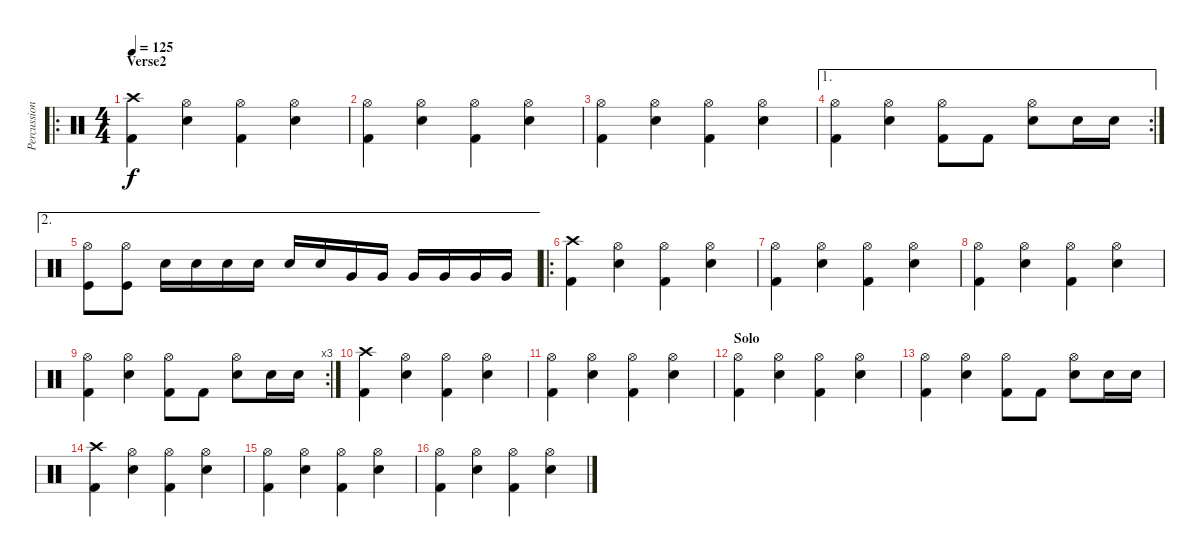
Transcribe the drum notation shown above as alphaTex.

\track ("Percussion" "Percussion") {instrument percussion}
\staff {score}
\articulation defaults
\ro
\ts (4 4)
\section ("" "Verse2")
\tempo 125
\clef neutral
\ks c
("Kick (hit) 2" "Crash high (hit)").4{dy f} ("Hi-Hat (open)" "Snare (hit) 2").4 ("Kick (hit) 2" "Hi-Hat (open)").4 ("Hi-Hat (open)" "Snare (hit) 2").4 |
("Kick (hit) 2" "Hi-Hat (open)").4 ("Hi-Hat (open)" "Snare (hit) 2").4 ("Kick (hit) 2" "Hi-Hat (open)").4 ("Hi-Hat (open)" "Snare (hit) 2").4 |
("Kick (hit) 2" "Hi-Hat (open)").4 ("Hi-Hat (open)" "Snare (hit) 2").4 ("Kick (hit) 2" "Hi-Hat (open)").4 ("Hi-Hat (open)" "Snare (hit) 2").4 |
\ae 1
\rc 2
("Kick (hit) 2" "Hi-Hat (open)").4 ("Hi-Hat (open)" "Snare (hit) 2").4 ("Kick (hit) 2" "Hi-Hat (open)").8 "Kick (hit) 2".8 ("Hi-Hat (open)" "Snare (hit) 2").8 "Snare (hit) 2".16 "Snare (hit) 2".16 |
\ae 2
("Hi-Hat (open)" "Kick (hit)").8 ("Hi-Hat (open)" "Kick (hit)").8 "Snare (hit) 2".16 "Snare (hit) 2".16 "Snare (hit) 2".16 "Snare (hit) 2".16 "Snare (hit) 2".16 "Snare (hit) 2".16 "Very Low Tom (hit)".16 "Very Low Tom (hit)".16 "Very Low Tom (hit)".16 "Very Low Tom (hit)".16 "Very Low Tom (hit)".16 "Very Low Tom (hit)".16 |
\ro
("Kick (hit) 2" "Crash high (hit)").4 ("Hi-Hat (open)" "Snare (hit) 2").4 ("Kick (hit) 2" "Hi-Hat (open)").4 ("Hi-Hat (open)" "Snare (hit) 2").4 |
("Kick (hit) 2" "Hi-Hat (open)").4 ("Hi-Hat (open)" "Snare (hit) 2").4 ("Kick (hit) 2" "Hi-Hat (open)").4 ("Hi-Hat (open)" "Snare (hit) 2").4 |
("Kick (hit) 2" "Hi-Hat (open)").4 ("Hi-Hat (open)" "Snare (hit) 2").4 ("Kick (hit) 2" "Hi-Hat (open)").4 ("Hi-Hat (open)" "Snare (hit) 2").4 |
\rc 3
("Kick (hit) 2" "Hi-Hat (open)").4 ("Hi-Hat (open)" "Snare (hit) 2").4 ("Kick (hit) 2" "Hi-Hat (open)").8 "Kick (hit) 2".8 ("Hi-Hat (open)" "Snare (hit) 2").8 "Snare (hit) 2".16 "Snare (hit) 2".16 |
("Kick (hit) 2" "Crash high (hit)").4 ("Hi-Hat (open)" "Snare (hit) 2").4 ("Kick (hit) 2" "Hi-Hat (open)").4 ("Hi-Hat (open)" "Snare (hit) 2").4 |
("Kick (hit) 2" "Hi-Hat (open)").4 ("Hi-Hat (open)" "Snare (hit) 2").4 ("Kick (hit) 2" "Hi-Hat (open)").4 ("Hi-Hat (open)" "Snare (hit) 2").4 |
\section ("" "Solo")
("Kick (hit) 2" "Hi-Hat (open)").4 ("Hi-Hat (open)" "Snare (hit) 2").4 ("Kick (hit) 2" "Hi-Hat (open)").4 ("Hi-Hat (open)" "Snare (hit) 2").4 |
("Kick (hit) 2" "Hi-Hat (open)").4 ("Hi-Hat (open)" "Snare (hit) 2").4 ("Kick (hit) 2" "Hi-Hat (open)").8 "Kick (hit) 2".8 ("Hi-Hat (open)" "Snare (hit) 2").8 "Snare (hit) 2".16 "Snare (hit) 2".16 |
("Kick (hit) 2" "Crash high (hit)").4 ("Hi-Hat (open)" "Snare (hit) 2").4 ("Kick (hit) 2" "Hi-Hat (open)").4 ("Hi-Hat (open)" "Snare (hit) 2").4 |
("Kick (hit) 2" "Hi-Hat (open)").4 ("Hi-Hat (open)" "Snare (hit) 2").4 ("Kick (hit) 2" "Hi-Hat (open)").4 ("Hi-Hat (open)" "Snare (hit) 2").4 |
("Kick (hit) 2" "Hi-Hat (open)").4 ("Hi-Hat (open)" "Snare (hit) 2").4 ("Kick (hit) 2" "Hi-Hat (open)").4 ("Hi-Hat (open)" "Snare (hit) 2").4
